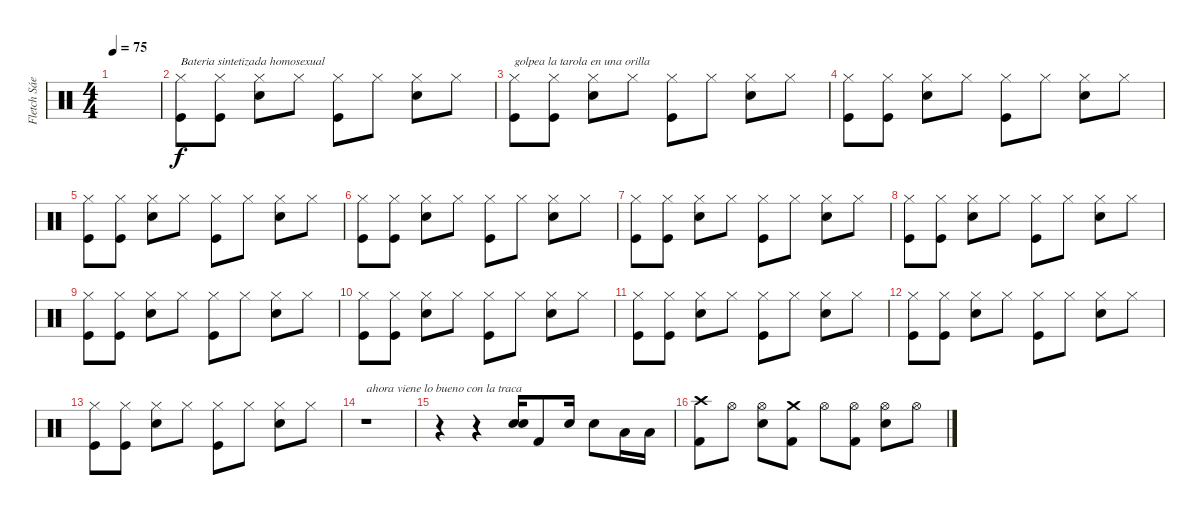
\track ("Fletch Sáenz" "Fletch Sáe") {instrument percussion}
\staff {score}
\articulation defaults
\ts (4 4)
\tempo 75
\clef neutral
\ks c
|
("Hi-Hat (closed)" "Kick (hit)").8{txt "Bateria sintetizada homosexual"} ("Hi-Hat (closed)" "Kick (hit)").8 ("Hi-Hat (closed)" "Snare (hit) 2").8 "Hi-Hat (closed)".8 ("Hi-Hat (closed)" "Kick (hit)").8 "Hi-Hat (closed)".8 ("Hi-Hat (closed)" "Snare (hit) 2").8 "Hi-Hat (closed)".8 |
("Hi-Hat (closed)" "Kick (hit)").8{txt "golpea la tarola en una orilla"} ("Hi-Hat (closed)" "Kick (hit)").8 ("Hi-Hat (closed)" "Snare (hit) 2").8 "Hi-Hat (closed)".8 ("Hi-Hat (closed)" "Kick (hit)").8 "Hi-Hat (closed)".8 ("Hi-Hat (closed)" "Snare (hit) 2").8 "Hi-Hat (closed)".8 |
("Hi-Hat (closed)" "Kick (hit)").8 ("Hi-Hat (closed)" "Kick (hit)").8 ("Hi-Hat (closed)" "Snare (hit) 2").8 "Hi-Hat (closed)".8 ("Hi-Hat (closed)" "Kick (hit)").8 "Hi-Hat (closed)".8 ("Hi-Hat (closed)" "Snare (hit) 2").8 "Hi-Hat (closed)".8 |
("Hi-Hat (closed)" "Kick (hit)").8 ("Hi-Hat (closed)" "Kick (hit)").8 ("Hi-Hat (closed)" "Snare (hit) 2").8 "Hi-Hat (closed)".8 ("Hi-Hat (closed)" "Kick (hit)").8 "Hi-Hat (closed)".8 ("Hi-Hat (closed)" "Snare (hit) 2").8 "Hi-Hat (closed)".8 |
("Hi-Hat (closed)" "Kick (hit)").8 ("Hi-Hat (closed)" "Kick (hit)").8 ("Hi-Hat (closed)" "Snare (hit) 2").8 "Hi-Hat (closed)".8 ("Hi-Hat (closed)" "Kick (hit)").8 "Hi-Hat (closed)".8 ("Hi-Hat (closed)" "Snare (hit) 2").8 "Hi-Hat (closed)".8 |
("Hi-Hat (closed)" "Kick (hit)").8 ("Hi-Hat (closed)" "Kick (hit)").8 ("Hi-Hat (closed)" "Snare (hit) 2").8 "Hi-Hat (closed)".8 ("Hi-Hat (closed)" "Kick (hit)").8 "Hi-Hat (closed)".8 ("Hi-Hat (closed)" "Snare (hit) 2").8 "Hi-Hat (closed)".8 |
("Hi-Hat (closed)" "Kick (hit)").8 ("Hi-Hat (closed)" "Kick (hit)").8 ("Hi-Hat (closed)" "Snare (hit) 2").8 "Hi-Hat (closed)".8 ("Hi-Hat (closed)" "Kick (hit)").8 "Hi-Hat (closed)".8 ("Hi-Hat (closed)" "Snare (hit) 2").8 "Hi-Hat (closed)".8 |
("Hi-Hat (closed)" "Kick (hit)").8 ("Hi-Hat (closed)" "Kick (hit)").8 ("Hi-Hat (closed)" "Snare (hit) 2").8 "Hi-Hat (closed)".8 ("Hi-Hat (closed)" "Kick (hit)").8 "Hi-Hat (closed)".8 ("Hi-Hat (closed)" "Snare (hit) 2").8 "Hi-Hat (closed)".8 |
("Hi-Hat (closed)" "Kick (hit)").8 ("Hi-Hat (closed)" "Kick (hit)").8 ("Hi-Hat (closed)" "Snare (hit) 2").8 "Hi-Hat (closed)".8 ("Hi-Hat (closed)" "Kick (hit)").8 "Hi-Hat (closed)".8 ("Hi-Hat (closed)" "Snare (hit) 2").8 "Hi-Hat (closed)".8 |
("Hi-Hat (closed)" "Kick (hit)").8 ("Hi-Hat (closed)" "Kick (hit)").8 ("Hi-Hat (closed)" "Snare (hit) 2").8 "Hi-Hat (closed)".8 ("Hi-Hat (closed)" "Kick (hit)").8 "Hi-Hat (closed)".8 ("Hi-Hat (closed)" "Snare (hit) 2").8 "Hi-Hat (closed)".8 |
("Hi-Hat (closed)" "Kick (hit)").8 ("Hi-Hat (closed)" "Kick (hit)").8 ("Hi-Hat (closed)" "Snare (hit) 2").8 "Hi-Hat (closed)".8 ("Hi-Hat (closed)" "Kick (hit)").8 "Hi-Hat (closed)".8 ("Hi-Hat (closed)" "Snare (hit) 2").8 "Hi-Hat (closed)".8 |
("Hi-Hat (closed)" "Kick (hit)").8 ("Hi-Hat (closed)" "Kick (hit)").8 ("Hi-Hat (closed)" "Snare (hit) 2").8 "Hi-Hat (closed)".8 ("Hi-Hat (closed)" "Kick (hit)").8 "Hi-Hat (closed)".8 ("Hi-Hat (closed)" "Snare (hit) 2").8 "Hi-Hat (closed)".8 |
r.1{txt "ahora viene lo bueno con la traca"} |
r.4 r.4 ("Electric Snare (hit)" "Electric Snare (hit)").16{bd 240} "Kick (hit) 2".8 "Electric Snare (hit)".16 "Electric Snare (hit)".8 "Low Tom (hit)".16 "Low Tom (hit)".16 |
("Crash high (hit)" "Kick (hit) 2").8 "Hi-Hat (open)".8 ("Hi-Hat (open)" "Electric Snare (hit)").8 ("Crash medium (hit)" "Kick (hit) 2").8 "Hi-Hat (open)".8 ("Hi-Hat (open)" "Kick (hit) 2").8 ("Hi-Hat (open)" "Electric Snare (hit)").8 "Hi-Hat (open)".8
